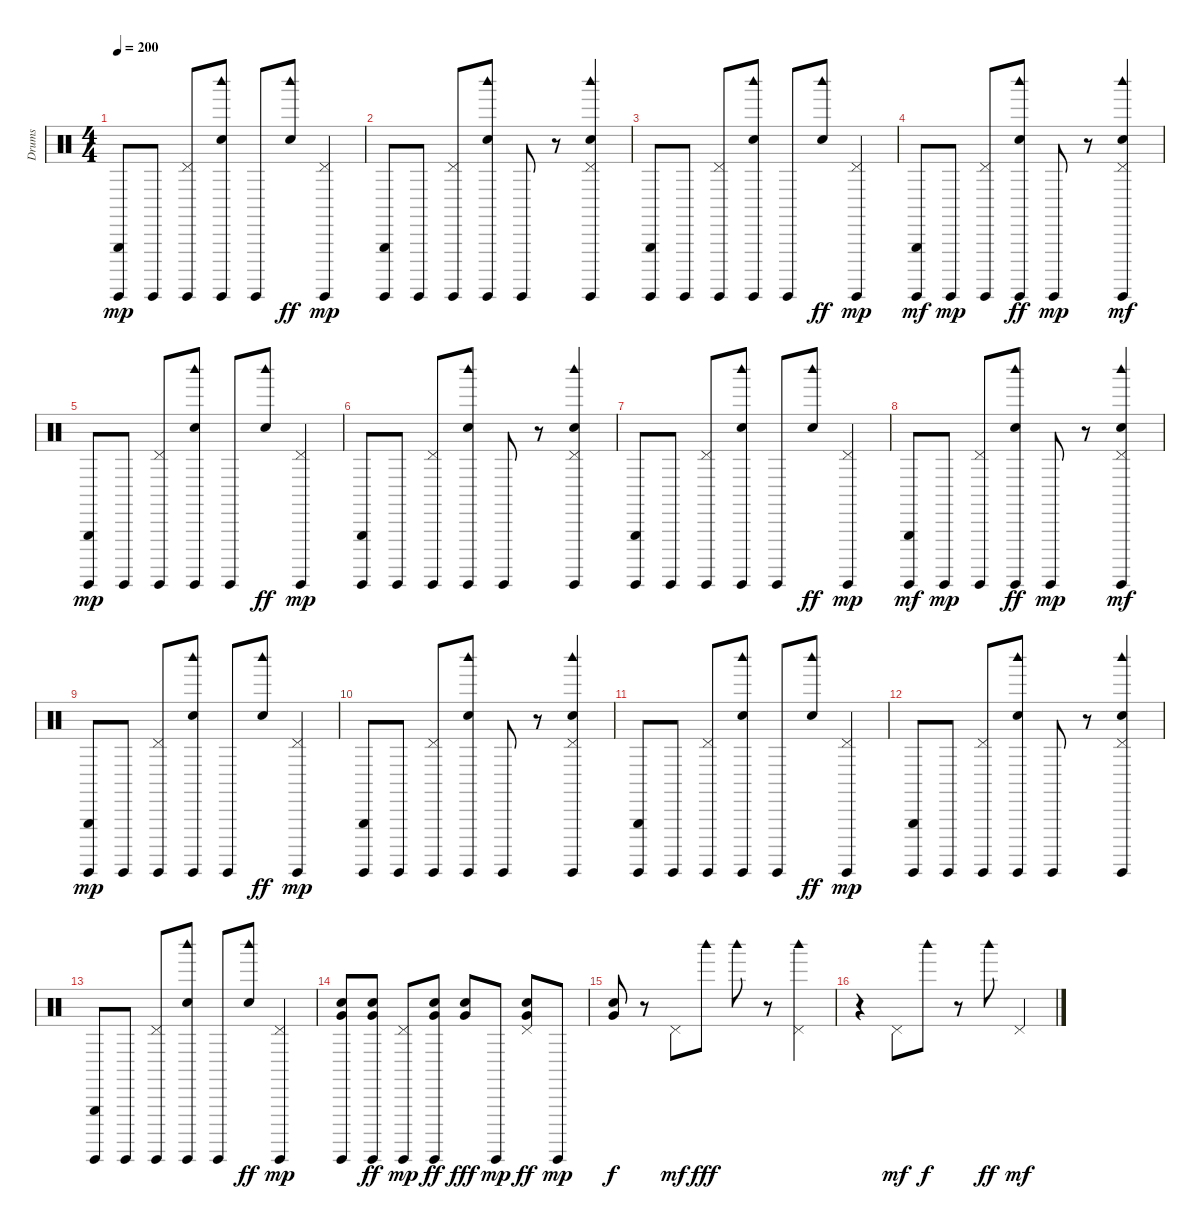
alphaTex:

\track ("Drums" "Drums") {instrument percussion}
\staff {score}
\articulation defaults
\ts (4 4)
\tempo 200
\clef neutral
\ks c
("Triangle (hit)" "Guiro (hit)").8{dy mp} "Guiro (hit)".8 ("Pedal Hi-Hat (hit)" "Guiro (hit)").8 ("Hand Clap (hit)" "Woodblock high (hit)" "Guiro (hit)").8 "Guiro (hit)".8 ("Hand Clap (hit)" "Woodblock high (hit)").8{dy ff} ("Pedal Hi-Hat (hit)" "Guiro (hit)").4{dy mp} |
("Triangle (hit)" "Guiro (hit)").8 "Guiro (hit)".8 ("Pedal Hi-Hat (hit)" "Guiro (hit)").8 ("Hand Clap (hit)" "Woodblock high (hit)" "Guiro (hit)").8 "Guiro (hit)".8 r.8 ("Hand Clap (hit)" "Woodblock high (hit)" "Pedal Hi-Hat (hit)" "Guiro (hit)").4 |
("Triangle (hit)" "Guiro (hit)").8 "Guiro (hit)".8 ("Pedal Hi-Hat (hit)" "Guiro (hit)").8 ("Hand Clap (hit)" "Woodblock high (hit)" "Guiro (hit)").8 "Guiro (hit)".8 ("Hand Clap (hit)" "Woodblock high (hit)").8{dy ff} ("Pedal Hi-Hat (hit)" "Guiro (hit)").4{dy mp} |
("Guiro (hit)" "Triangle (hit)").8{dy mf} "Guiro (hit)".8{dy mp} ("Pedal Hi-Hat (hit)" "Guiro (hit)").8 ("Guiro (hit)" "Woodblock high (hit)" "Hand Clap (hit)").8{dy ff} "Guiro (hit)".8{dy mp} r.8 ("Hand Clap (hit)" "Guiro (hit)" "Pedal Hi-Hat (hit)" "Woodblock high (hit)").4{dy mf} |
("Triangle (hit)" "Guiro (hit)").8{dy mp} "Guiro (hit)".8 ("Pedal Hi-Hat (hit)" "Guiro (hit)").8 ("Hand Clap (hit)" "Woodblock high (hit)" "Guiro (hit)").8 "Guiro (hit)".8 ("Hand Clap (hit)" "Woodblock high (hit)").8{dy ff} ("Pedal Hi-Hat (hit)" "Guiro (hit)").4{dy mp} |
("Triangle (hit)" "Guiro (hit)").8 "Guiro (hit)".8 ("Pedal Hi-Hat (hit)" "Guiro (hit)").8 ("Hand Clap (hit)" "Woodblock high (hit)" "Guiro (hit)").8 "Guiro (hit)".8 r.8 ("Hand Clap (hit)" "Woodblock high (hit)" "Pedal Hi-Hat (hit)" "Guiro (hit)").4 |
("Triangle (hit)" "Guiro (hit)").8 "Guiro (hit)".8 ("Pedal Hi-Hat (hit)" "Guiro (hit)").8 ("Hand Clap (hit)" "Woodblock high (hit)" "Guiro (hit)").8 "Guiro (hit)".8 ("Hand Clap (hit)" "Woodblock high (hit)").8{dy ff} ("Pedal Hi-Hat (hit)" "Guiro (hit)").4{dy mp} |
("Guiro (hit)" "Triangle (hit)").8{dy mf} "Guiro (hit)".8{dy mp} ("Pedal Hi-Hat (hit)" "Guiro (hit)").8 ("Guiro (hit)" "Woodblock high (hit)" "Hand Clap (hit)").8{dy ff} "Guiro (hit)".8{dy mp} r.8 ("Hand Clap (hit)" "Guiro (hit)" "Pedal Hi-Hat (hit)" "Woodblock high (hit)").4{dy mf} |
("Triangle (hit)" "Guiro (hit)").8{dy mp} "Guiro (hit)".8 ("Pedal Hi-Hat (hit)" "Guiro (hit)").8 ("Hand Clap (hit)" "Woodblock high (hit)" "Guiro (hit)").8 "Guiro (hit)".8 ("Hand Clap (hit)" "Woodblock high (hit)").8{dy ff} ("Pedal Hi-Hat (hit)" "Guiro (hit)").4{dy mp} |
("Triangle (hit)" "Guiro (hit)").8 "Guiro (hit)".8 ("Pedal Hi-Hat (hit)" "Guiro (hit)").8 ("Hand Clap (hit)" "Woodblock high (hit)" "Guiro (hit)").8 "Guiro (hit)".8 r.8 ("Hand Clap (hit)" "Woodblock high (hit)" "Pedal Hi-Hat (hit)" "Guiro (hit)").4 |
("Triangle (hit)" "Guiro (hit)").8 "Guiro (hit)".8 ("Pedal Hi-Hat (hit)" "Guiro (hit)").8 ("Hand Clap (hit)" "Woodblock high (hit)" "Guiro (hit)").8 "Guiro (hit)".8 ("Hand Clap (hit)" "Woodblock high (hit)").8{dy ff} ("Pedal Hi-Hat (hit)" "Guiro (hit)").4{dy mp} |
("Triangle (hit)" "Guiro (hit)").8 "Guiro (hit)".8 ("Pedal Hi-Hat (hit)" "Guiro (hit)").8 ("Hand Clap (hit)" "Woodblock high (hit)" "Guiro (hit)").8 "Guiro (hit)".8 r.8 ("Hand Clap (hit)" "Woodblock high (hit)" "Pedal Hi-Hat (hit)" "Guiro (hit)").4 |
("Triangle (hit)" "Guiro (hit)").8 "Guiro (hit)".8 ("Pedal Hi-Hat (hit)" "Guiro (hit)").8 ("Hand Clap (hit)" "Woodblock high (hit)" "Guiro (hit)").8 "Guiro (hit)".8 ("Hand Clap (hit)" "Woodblock high (hit)").8{dy ff} ("Pedal Hi-Hat (hit)" "Guiro (hit)").4{dy mp} |
("Guiro (hit)" "Very Low Tom (hit)" "Electric Snare (hit)").8 ("Guiro (hit)" "Very Low Tom (hit)" "Electric Snare (hit)").8{dy ff} ("Pedal Hi-Hat (hit)" "Guiro (hit)").8{dy mp} ("Guiro (hit)" "Very Low Tom (hit)" "Electric Snare (hit)").8{dy ff} ("Very Low Tom (hit)" "Electric Snare (hit)").8{dy fff} "Guiro (hit)".8{dy mp} ("Pedal Hi-Hat (hit)" "Very Low Tom (hit)" "Electric Snare (hit)").8{dy ff} "Guiro (hit)".8{dy mp} |
("Very Low Tom (hit)" "Electric Snare (hit)").8{dy f} r.8 "Pedal Hi-Hat (hit)".8{dy mf} "Woodblock high (hit)".8{dy fff} "Woodblock high (hit)".8 r.8 ("Pedal Hi-Hat (hit)" "Woodblock high (hit)").4 |
r.4 "Pedal Hi-Hat (hit)".8{dy mf} "Woodblock high (hit)".8{dy f} r.8 "Woodblock high (hit)".8{dy ff} "Pedal Hi-Hat (hit)".4{dy mf}
